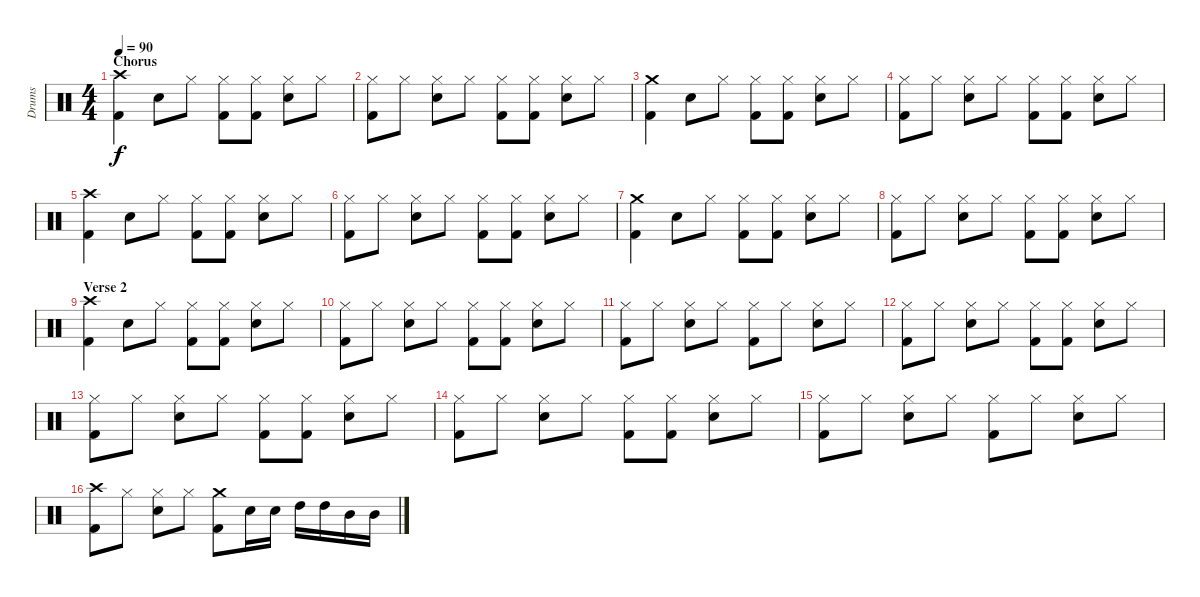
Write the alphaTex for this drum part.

\track ("Drums" "Drums") {instrument percussion}
\staff {score}
\articulation defaults
\ts (4 4)
\section ("" "Chorus")
\tempo 90
\clef neutral
\ks c
("Kick (hit) 2" "Crash high (hit)").4{dy f} "Snare (hit) 2".8 "Hi-Hat (closed)".8 ("Kick (hit) 2" "Hi-Hat (closed)").8 ("Kick (hit) 2" "Hi-Hat (closed)").8 ("Snare (hit) 2" "Hi-Hat (closed)").8 "Hi-Hat (closed)".8 |
("Kick (hit) 2" "Hi-Hat (closed)").8 "Hi-Hat (closed)".8 ("Snare (hit) 2" "Hi-Hat (closed)").8 "Hi-Hat (closed)".8 ("Kick (hit) 2" "Hi-Hat (closed)").8 ("Kick (hit) 2" "Hi-Hat (closed)").8 ("Snare (hit) 2" "Hi-Hat (closed)").8 "Hi-Hat (closed)".8 |
("Kick (hit) 2" "Crash medium (hit)").4 "Snare (hit) 2".8 "Hi-Hat (closed)".8 ("Kick (hit) 2" "Hi-Hat (closed)").8 ("Kick (hit) 2" "Hi-Hat (closed)").8 ("Snare (hit) 2" "Hi-Hat (closed)").8 "Hi-Hat (closed)".8 |
("Kick (hit) 2" "Hi-Hat (closed)").8 "Hi-Hat (closed)".8 ("Snare (hit) 2" "Hi-Hat (closed)").8 "Hi-Hat (closed)".8 ("Kick (hit) 2" "Hi-Hat (closed)").8 ("Kick (hit) 2" "Hi-Hat (closed)").8 ("Snare (hit) 2" "Hi-Hat (closed)").8 "Hi-Hat (closed)".8 |
("Kick (hit) 2" "Crash high (hit)").4 "Snare (hit) 2".8 "Hi-Hat (closed)".8 ("Kick (hit) 2" "Hi-Hat (closed)").8 ("Kick (hit) 2" "Hi-Hat (closed)").8 ("Snare (hit) 2" "Hi-Hat (closed)").8 "Hi-Hat (closed)".8 |
("Kick (hit) 2" "Hi-Hat (closed)").8 "Hi-Hat (closed)".8 ("Snare (hit) 2" "Hi-Hat (closed)").8 "Hi-Hat (closed)".8 ("Kick (hit) 2" "Hi-Hat (closed)").8 ("Kick (hit) 2" "Hi-Hat (closed)").8 ("Snare (hit) 2" "Hi-Hat (closed)").8 "Hi-Hat (closed)".8 |
("Kick (hit) 2" "Crash medium (hit)").4 "Snare (hit) 2".8 "Hi-Hat (closed)".8 ("Kick (hit) 2" "Hi-Hat (closed)").8 ("Kick (hit) 2" "Hi-Hat (closed)").8 ("Snare (hit) 2" "Hi-Hat (closed)").8 "Hi-Hat (closed)".8 |
("Kick (hit) 2" "Hi-Hat (closed)").8 "Hi-Hat (closed)".8 ("Snare (hit) 2" "Hi-Hat (closed)").8 "Hi-Hat (closed)".8 ("Kick (hit) 2" "Hi-Hat (closed)").8 ("Kick (hit) 2" "Hi-Hat (closed)").8 ("Snare (hit) 2" "Hi-Hat (closed)").8 "Hi-Hat (closed)".8 |
\section ("" "Verse 2")
("Kick (hit) 2" "Crash high (hit)").4 "Snare (hit) 2".8 "Hi-Hat (closed)".8 ("Kick (hit) 2" "Hi-Hat (closed)").8 ("Kick (hit) 2" "Hi-Hat (closed)").8 ("Snare (hit) 2" "Hi-Hat (closed)").8 "Hi-Hat (closed)".8 |
("Kick (hit) 2" "Hi-Hat (closed)").8 "Hi-Hat (closed)".8 ("Snare (hit) 2" "Hi-Hat (closed)").8 "Hi-Hat (closed)".8 ("Kick (hit) 2" "Hi-Hat (closed)").8 ("Kick (hit) 2" "Hi-Hat (closed)").8 ("Snare (hit) 2" "Hi-Hat (closed)").8 "Hi-Hat (closed)".8 |
("Kick (hit) 2" "Hi-Hat (closed)").8 "Hi-Hat (closed)".8 ("Snare (hit) 2" "Hi-Hat (closed)").8 "Hi-Hat (closed)".8 ("Kick (hit) 2" "Hi-Hat (closed)").8 "Hi-Hat (closed)".8 ("Snare (hit) 2" "Hi-Hat (closed)").8 "Hi-Hat (closed)".8 |
("Kick (hit) 2" "Hi-Hat (closed)").8 "Hi-Hat (closed)".8 ("Snare (hit) 2" "Hi-Hat (closed)").8 "Hi-Hat (closed)".8 ("Kick (hit) 2" "Hi-Hat (closed)").8 ("Kick (hit) 2" "Hi-Hat (closed)").8 ("Snare (hit) 2" "Hi-Hat (closed)").8 "Hi-Hat (closed)".8 |
("Kick (hit) 2" "Hi-Hat (closed)").8 "Hi-Hat (closed)".8 ("Snare (hit) 2" "Hi-Hat (closed)").8 "Hi-Hat (closed)".8 ("Kick (hit) 2" "Hi-Hat (closed)").8 ("Kick (hit) 2" "Hi-Hat (closed)").8 ("Snare (hit) 2" "Hi-Hat (closed)").8 "Hi-Hat (closed)".8 |
("Kick (hit) 2" "Hi-Hat (closed)").8 "Hi-Hat (closed)".8 ("Snare (hit) 2" "Hi-Hat (closed)").8 "Hi-Hat (closed)".8 ("Kick (hit) 2" "Hi-Hat (closed)").8 ("Kick (hit) 2" "Hi-Hat (closed)").8 ("Snare (hit) 2" "Hi-Hat (closed)").8 "Hi-Hat (closed)".8 |
("Kick (hit) 2" "Hi-Hat (closed)").8 "Hi-Hat (closed)".8 ("Snare (hit) 2" "Hi-Hat (closed)").8 "Hi-Hat (closed)".8 ("Kick (hit) 2" "Hi-Hat (closed)").8 "Hi-Hat (closed)".8 ("Snare (hit) 2" "Hi-Hat (closed)").8 "Hi-Hat (closed)".8 |
("Kick (hit) 2" "Crash high (hit)").8 "Hi-Hat (closed)".8 ("Snare (hit) 2" "Hi-Hat (closed)").8 "Hi-Hat (closed)".8 ("Kick (hit) 2" "Crash medium (hit)").8 "Snare (hit) 2".16 "Snare (hit) 2".16 "High Tom (hit)".16 "High Tom (hit)".16 "Mid Tom (hit)".16 "Mid Tom (hit)".16
